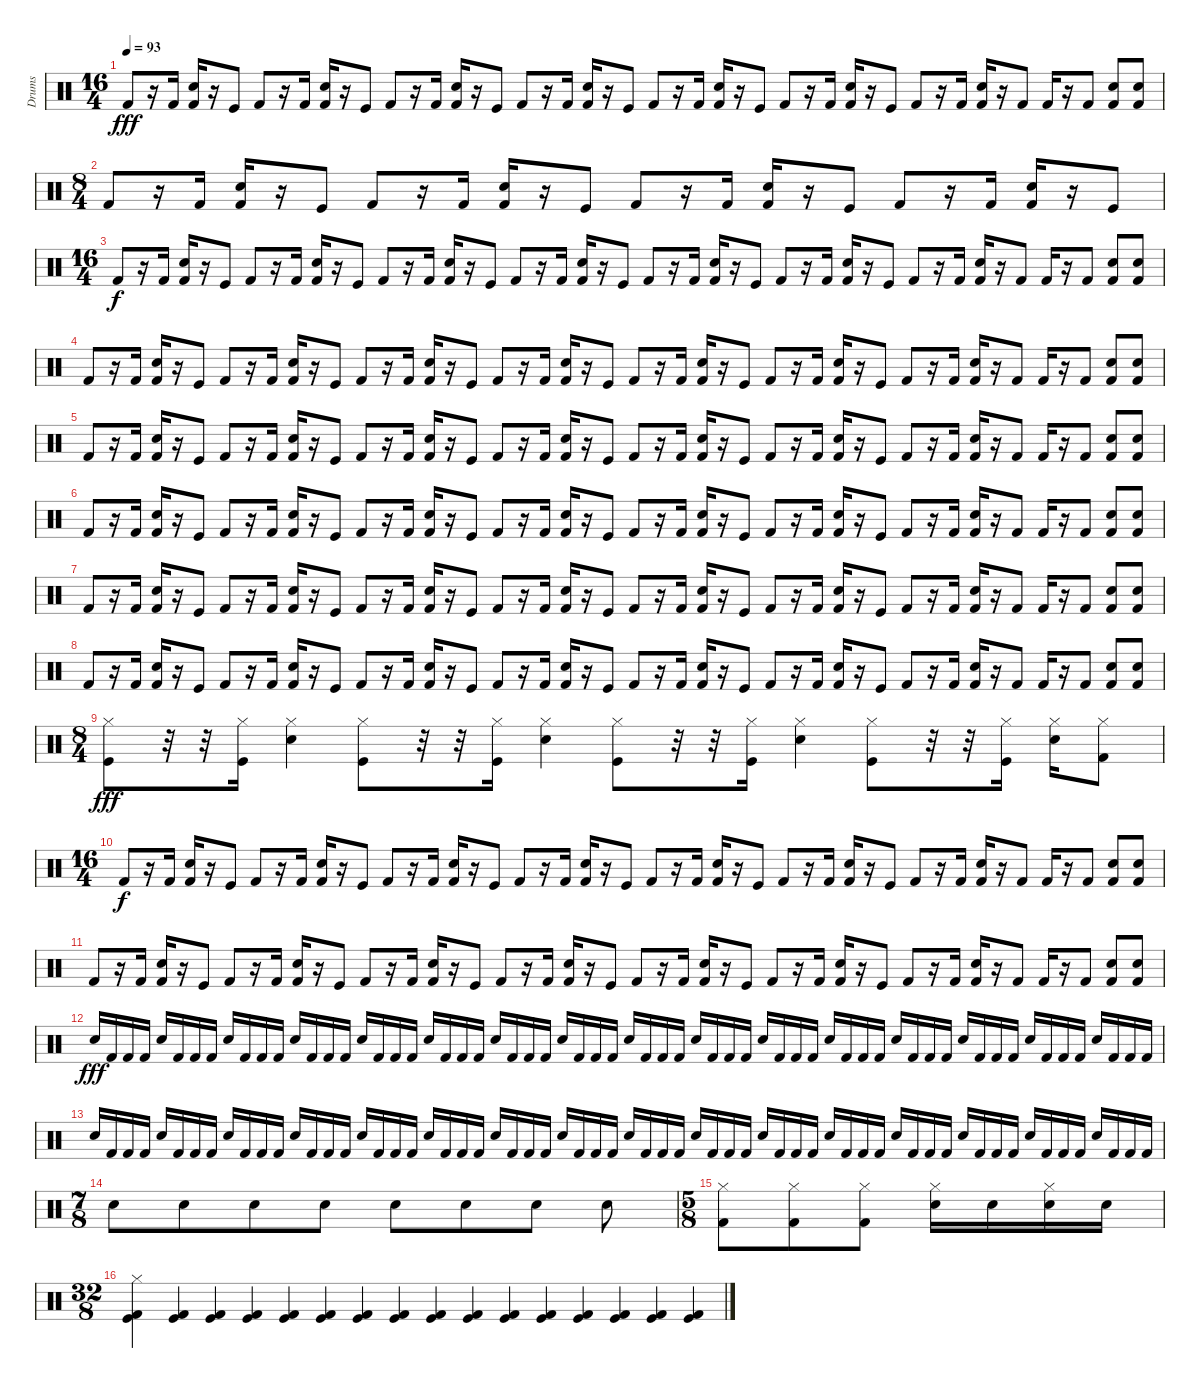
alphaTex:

\track ("Drums" "Drums") {solo instrument percussion}
\staff {score}
\articulation defaults
\ts (16 4)
\tempo 93
\clef neutral
\ks c "Kick (hit) 2".8{dy fff}
r.16 "Kick (hit) 2".16 ("Kick (hit) 2" "Snare (hit) 2").16 r.16 "Kick (hit)".8 "Kick (hit) 2".8 r.16 "Kick (hit) 2".16 ("Kick (hit) 2" "Snare (hit) 2").16 r.16 "Kick (hit)".8 "Kick (hit) 2".8 r.16 "Kick (hit) 2".16 ("Kick (hit) 2" "Snare (hit) 2").16 r.16 "Kick (hit)".8 "Kick (hit) 2".8 r.16 "Kick (hit) 2".16 ("Kick (hit) 2" "Snare (hit) 2").16 r.16 "Kick (hit)".8 "Kick (hit) 2".8 r.16 "Kick (hit) 2".16 ("Kick (hit) 2" "Snare (hit) 2").16 r.16 "Kick (hit)".8 "Kick (hit) 2".8 r.16 "Kick (hit) 2".16 ("Kick (hit) 2" "Snare (hit) 2").16 r.16 "Kick (hit)".8 "Kick (hit) 2".8 r.16 "Kick (hit) 2".16 ("Kick (hit) 2" "Snare (hit) 2").16 r.16 "Kick (hit) 2".8 "Kick (hit) 2".16 r.16 "Kick (hit) 2".8 ("Kick (hit) 2" "Snare (hit) 2").8 ("Kick (hit) 2" "Snare (hit) 2").8 |
\ts (8 4)
"Kick (hit) 2".8 r.16 "Kick (hit) 2".16 ("Kick (hit) 2" "Snare (hit) 2").16 r.16 "Kick (hit)".8 "Kick (hit) 2".8 r.16 "Kick (hit) 2".16 ("Kick (hit) 2" "Snare (hit) 2").16 r.16 "Kick (hit)".8 "Kick (hit) 2".8 r.16 "Kick (hit) 2".16 ("Kick (hit) 2" "Snare (hit) 2").16 r.16 "Kick (hit)".8 "Kick (hit) 2".8 r.16 "Kick (hit) 2".16 ("Kick (hit) 2" "Snare (hit) 2").16 r.16 "Kick (hit)".8 |
\ts (16 4)
"Kick (hit) 2".8{dy f} r.16 "Kick (hit) 2".16 ("Kick (hit) 2" "Snare (hit) 2").16 r.16 "Kick (hit)".8 "Kick (hit) 2".8 r.16 "Kick (hit) 2".16 ("Kick (hit) 2" "Snare (hit) 2").16 r.16 "Kick (hit)".8 "Kick (hit) 2".8 r.16 "Kick (hit) 2".16 ("Kick (hit) 2" "Snare (hit) 2").16 r.16 "Kick (hit)".8 "Kick (hit) 2".8 r.16 "Kick (hit) 2".16 ("Kick (hit) 2" "Snare (hit) 2").16 r.16 "Kick (hit)".8 "Kick (hit) 2".8 r.16 "Kick (hit) 2".16 ("Kick (hit) 2" "Snare (hit) 2").16 r.16 "Kick (hit)".8 "Kick (hit) 2".8 r.16 "Kick (hit) 2".16 ("Kick (hit) 2" "Snare (hit) 2").16 r.16 "Kick (hit)".8 "Kick (hit) 2".8 r.16 "Kick (hit) 2".16 ("Kick (hit) 2" "Snare (hit) 2").16 r.16 "Kick (hit) 2".8 "Kick (hit) 2".16 r.16 "Kick (hit) 2".8 ("Kick (hit) 2" "Snare (hit) 2").8 ("Kick (hit) 2" "Snare (hit) 2").8 |
"Kick (hit) 2".8 r.16 "Kick (hit) 2".16 ("Kick (hit) 2" "Snare (hit) 2").16 r.16 "Kick (hit)".8 "Kick (hit) 2".8 r.16 "Kick (hit) 2".16 ("Kick (hit) 2" "Snare (hit) 2").16 r.16 "Kick (hit)".8 "Kick (hit) 2".8 r.16 "Kick (hit) 2".16 ("Kick (hit) 2" "Snare (hit) 2").16 r.16 "Kick (hit)".8 "Kick (hit) 2".8 r.16 "Kick (hit) 2".16 ("Kick (hit) 2" "Snare (hit) 2").16 r.16 "Kick (hit)".8 "Kick (hit) 2".8 r.16 "Kick (hit) 2".16 ("Kick (hit) 2" "Snare (hit) 2").16 r.16 "Kick (hit)".8 "Kick (hit) 2".8 r.16 "Kick (hit) 2".16 ("Kick (hit) 2" "Snare (hit) 2").16 r.16 "Kick (hit)".8 "Kick (hit) 2".8 r.16 "Kick (hit) 2".16 ("Kick (hit) 2" "Snare (hit) 2").16 r.16 "Kick (hit) 2".8 "Kick (hit) 2".16 r.16 "Kick (hit) 2".8 ("Kick (hit) 2" "Snare (hit) 2").8 ("Kick (hit) 2" "Snare (hit) 2").8 |
"Kick (hit) 2".8 r.16 "Kick (hit) 2".16 ("Kick (hit) 2" "Snare (hit) 2").16 r.16 "Kick (hit)".8 "Kick (hit) 2".8 r.16 "Kick (hit) 2".16 ("Kick (hit) 2" "Snare (hit) 2").16 r.16 "Kick (hit)".8 "Kick (hit) 2".8 r.16 "Kick (hit) 2".16 ("Kick (hit) 2" "Snare (hit) 2").16 r.16 "Kick (hit)".8 "Kick (hit) 2".8 r.16 "Kick (hit) 2".16 ("Kick (hit) 2" "Snare (hit) 2").16 r.16 "Kick (hit)".8 "Kick (hit) 2".8 r.16 "Kick (hit) 2".16 ("Kick (hit) 2" "Snare (hit) 2").16 r.16 "Kick (hit)".8 "Kick (hit) 2".8 r.16 "Kick (hit) 2".16 ("Kick (hit) 2" "Snare (hit) 2").16 r.16 "Kick (hit)".8 "Kick (hit) 2".8 r.16 "Kick (hit) 2".16 ("Kick (hit) 2" "Snare (hit) 2").16 r.16 "Kick (hit) 2".8 "Kick (hit) 2".16 r.16 "Kick (hit) 2".8 ("Kick (hit) 2" "Snare (hit) 2").8 ("Kick (hit) 2" "Snare (hit) 2").8 |
"Kick (hit) 2".8 r.16 "Kick (hit) 2".16 ("Kick (hit) 2" "Snare (hit) 2").16 r.16 "Kick (hit)".8 "Kick (hit) 2".8 r.16 "Kick (hit) 2".16 ("Kick (hit) 2" "Snare (hit) 2").16 r.16 "Kick (hit)".8 "Kick (hit) 2".8 r.16 "Kick (hit) 2".16 ("Kick (hit) 2" "Snare (hit) 2").16 r.16 "Kick (hit)".8 "Kick (hit) 2".8 r.16 "Kick (hit) 2".16 ("Kick (hit) 2" "Snare (hit) 2").16 r.16 "Kick (hit)".8 "Kick (hit) 2".8 r.16 "Kick (hit) 2".16 ("Kick (hit) 2" "Snare (hit) 2").16 r.16 "Kick (hit)".8 "Kick (hit) 2".8 r.16 "Kick (hit) 2".16 ("Kick (hit) 2" "Snare (hit) 2").16 r.16 "Kick (hit)".8 "Kick (hit) 2".8 r.16 "Kick (hit) 2".16 ("Kick (hit) 2" "Snare (hit) 2").16 r.16 "Kick (hit) 2".8 "Kick (hit) 2".16 r.16 "Kick (hit) 2".8 ("Kick (hit) 2" "Snare (hit) 2").8 ("Kick (hit) 2" "Snare (hit) 2").8 |
"Kick (hit) 2".8 r.16 "Kick (hit) 2".16 ("Kick (hit) 2" "Snare (hit) 2").16 r.16 "Kick (hit)".8 "Kick (hit) 2".8 r.16 "Kick (hit) 2".16 ("Kick (hit) 2" "Snare (hit) 2").16 r.16 "Kick (hit)".8 "Kick (hit) 2".8 r.16 "Kick (hit) 2".16 ("Kick (hit) 2" "Snare (hit) 2").16 r.16 "Kick (hit)".8 "Kick (hit) 2".8 r.16 "Kick (hit) 2".16 ("Kick (hit) 2" "Snare (hit) 2").16 r.16 "Kick (hit)".8 "Kick (hit) 2".8 r.16 "Kick (hit) 2".16 ("Kick (hit) 2" "Snare (hit) 2").16 r.16 "Kick (hit)".8 "Kick (hit) 2".8 r.16 "Kick (hit) 2".16 ("Kick (hit) 2" "Snare (hit) 2").16 r.16 "Kick (hit)".8 "Kick (hit) 2".8 r.16 "Kick (hit) 2".16 ("Kick (hit) 2" "Snare (hit) 2").16 r.16 "Kick (hit) 2".8 "Kick (hit) 2".16 r.16 "Kick (hit) 2".8 ("Kick (hit) 2" "Snare (hit) 2").8 ("Kick (hit) 2" "Snare (hit) 2").8 |
"Kick (hit) 2".8 r.16 "Kick (hit) 2".16 ("Kick (hit) 2" "Snare (hit) 2").16 r.16 "Kick (hit)".8 "Kick (hit) 2".8 r.16 "Kick (hit) 2".16 ("Kick (hit) 2" "Snare (hit) 2").16 r.16 "Kick (hit)".8 "Kick (hit) 2".8 r.16 "Kick (hit) 2".16 ("Kick (hit) 2" "Snare (hit) 2").16 r.16 "Kick (hit)".8 "Kick (hit) 2".8 r.16 "Kick (hit) 2".16 ("Kick (hit) 2" "Snare (hit) 2").16 r.16 "Kick (hit)".8 "Kick (hit) 2".8 r.16 "Kick (hit) 2".16 ("Kick (hit) 2" "Snare (hit) 2").16 r.16 "Kick (hit)".8 "Kick (hit) 2".8 r.16 "Kick (hit) 2".16 ("Kick (hit) 2" "Snare (hit) 2").16 r.16 "Kick (hit)".8 "Kick (hit) 2".8 r.16 "Kick (hit) 2".16 ("Kick (hit) 2" "Snare (hit) 2").16 r.16 "Kick (hit) 2".8 "Kick (hit) 2".16 r.16 "Kick (hit) 2".8 ("Kick (hit) 2" "Snare (hit) 2").8 ("Kick (hit) 2" "Snare (hit) 2").8 |
\ts (8 4)
("Hi-Hat (closed)" "Kick (hit)").8{dy fff} r.32 r.32 ("Hi-Hat (closed)" "Kick (hit)").16 ("Hi-Hat (closed)" "Snare (hit) 2").4 ("Hi-Hat (closed)" "Kick (hit)").8 r.32 r.32 ("Hi-Hat (closed)" "Kick (hit)").16 ("Hi-Hat (closed)" "Snare (hit) 2").4 ("Hi-Hat (closed)" "Kick (hit)").8 r.32 r.32 ("Hi-Hat (closed)" "Kick (hit)").16 ("Hi-Hat (closed)" "Snare (hit) 2").4 ("Hi-Hat (closed)" "Kick (hit)").8 r.32 r.32 ("Hi-Hat (closed)" "Kick (hit)").16 ("Hi-Hat (closed)" "Snare (hit) 2").16 ("Kick (hit) 2" "Hi-Hat (closed)").8 |
\ts (16 4)
"Kick (hit) 2".8{dy f} r.16 "Kick (hit) 2".16 ("Kick (hit) 2" "Snare (hit) 2").16 r.16 "Kick (hit)".8 "Kick (hit) 2".8 r.16 "Kick (hit) 2".16 ("Kick (hit) 2" "Snare (hit) 2").16 r.16 "Kick (hit)".8 "Kick (hit) 2".8 r.16 "Kick (hit) 2".16 ("Kick (hit) 2" "Snare (hit) 2").16 r.16 "Kick (hit)".8 "Kick (hit) 2".8 r.16 "Kick (hit) 2".16 ("Kick (hit) 2" "Snare (hit) 2").16 r.16 "Kick (hit)".8 "Kick (hit) 2".8 r.16 "Kick (hit) 2".16 ("Kick (hit) 2" "Snare (hit) 2").16 r.16 "Kick (hit)".8 "Kick (hit) 2".8 r.16 "Kick (hit) 2".16 ("Kick (hit) 2" "Snare (hit) 2").16 r.16 "Kick (hit)".8 "Kick (hit) 2".8 r.16 "Kick (hit) 2".16 ("Kick (hit) 2" "Snare (hit) 2").16 r.16 "Kick (hit) 2".8 "Kick (hit) 2".16 r.16 "Kick (hit) 2".8 ("Kick (hit) 2" "Snare (hit) 2").8 ("Kick (hit) 2" "Snare (hit) 2").8 |
"Kick (hit) 2".8 r.16 "Kick (hit) 2".16 ("Kick (hit) 2" "Snare (hit) 2").16 r.16 "Kick (hit)".8 "Kick (hit) 2".8 r.16 "Kick (hit) 2".16 ("Kick (hit) 2" "Snare (hit) 2").16 r.16 "Kick (hit)".8 "Kick (hit) 2".8 r.16 "Kick (hit) 2".16 ("Kick (hit) 2" "Snare (hit) 2").16 r.16 "Kick (hit)".8 "Kick (hit) 2".8 r.16 "Kick (hit) 2".16 ("Kick (hit) 2" "Snare (hit) 2").16 r.16 "Kick (hit)".8 "Kick (hit) 2".8 r.16 "Kick (hit) 2".16 ("Kick (hit) 2" "Snare (hit) 2").16 r.16 "Kick (hit)".8 "Kick (hit) 2".8 r.16 "Kick (hit) 2".16 ("Kick (hit) 2" "Snare (hit) 2").16 r.16 "Kick (hit)".8 "Kick (hit) 2".8 r.16 "Kick (hit) 2".16 ("Kick (hit) 2" "Snare (hit) 2").16 r.16 "Kick (hit) 2".8 "Kick (hit) 2".16 r.16 "Kick (hit) 2".8 ("Kick (hit) 2" "Snare (hit) 2").8 ("Kick (hit) 2" "Snare (hit) 2").8 |
"Snare (hit) 2".16{dy fff} "Kick (hit) 2".16 "Kick (hit) 2".16 "Kick (hit) 2".16 "Snare (hit) 2".16 "Kick (hit) 2".16 "Kick (hit) 2".16 "Kick (hit) 2".16 "Snare (hit) 2".16 "Kick (hit) 2".16 "Kick (hit) 2".16 "Kick (hit) 2".16 "Snare (hit) 2".16 "Kick (hit) 2".16 "Kick (hit) 2".16 "Kick (hit) 2".16 "Snare (hit) 2".16 "Kick (hit) 2".16 "Kick (hit) 2".16 "Kick (hit) 2".16 "Snare (hit) 2".16 "Kick (hit) 2".16 "Kick (hit) 2".16 "Kick (hit) 2".16 "Snare (hit) 2".16 "Kick (hit) 2".16 "Kick (hit) 2".16 "Kick (hit) 2".16 "Snare (hit) 2".16 "Kick (hit) 2".16 "Kick (hit) 2".16 "Kick (hit) 2".16 "Snare (hit) 2".16 "Kick (hit) 2".16 "Kick (hit) 2".16 "Kick (hit) 2".16 "Snare (hit) 2".16 "Kick (hit) 2".16 "Kick (hit) 2".16 "Kick (hit) 2".16 "Snare (hit) 2".16 "Kick (hit) 2".16 "Kick (hit) 2".16 "Kick (hit) 2".16 "Snare (hit) 2".16 "Kick (hit) 2".16 "Kick (hit) 2".16 "Kick (hit) 2".16 "Snare (hit) 2".16 "Kick (hit) 2".16 "Kick (hit) 2".16 "Kick (hit) 2".16 "Snare (hit) 2".16 "Kick (hit) 2".16 "Kick (hit) 2".16 "Kick (hit) 2".16 "Snare (hit) 2".16 "Kick (hit) 2".16 "Kick (hit) 2".16 "Kick (hit) 2".16 "Snare (hit) 2".16 "Kick (hit) 2".16 "Kick (hit) 2".16 "Kick (hit) 2".16 |
"Snare (hit) 2".16 "Kick (hit) 2".16 "Kick (hit) 2".16 "Kick (hit) 2".16 "Snare (hit) 2".16 "Kick (hit) 2".16 "Kick (hit) 2".16 "Kick (hit) 2".16 "Snare (hit) 2".16 "Kick (hit) 2".16 "Kick (hit) 2".16 "Kick (hit) 2".16 "Snare (hit) 2".16 "Kick (hit) 2".16 "Kick (hit) 2".16 "Kick (hit) 2".16 "Snare (hit) 2".16 "Kick (hit) 2".16 "Kick (hit) 2".16 "Kick (hit) 2".16 "Snare (hit) 2".16 "Kick (hit) 2".16 "Kick (hit) 2".16 "Kick (hit) 2".16 "Snare (hit) 2".16 "Kick (hit) 2".16 "Kick (hit) 2".16 "Kick (hit) 2".16 "Snare (hit) 2".16 "Kick (hit) 2".16 "Kick (hit) 2".16 "Kick (hit) 2".16 "Snare (hit) 2".16 "Kick (hit) 2".16 "Kick (hit) 2".16 "Kick (hit) 2".16 "Snare (hit) 2".16 "Kick (hit) 2".16 "Kick (hit) 2".16 "Kick (hit) 2".16 "Snare (hit) 2".16 "Kick (hit) 2".16 "Kick (hit) 2".16 "Kick (hit) 2".16 "Snare (hit) 2".16 "Kick (hit) 2".16 "Kick (hit) 2".16 "Kick (hit) 2".16 "Snare (hit) 2".16 "Kick (hit) 2".16 "Kick (hit) 2".16 "Kick (hit) 2".16 "Snare (hit) 2".16 "Kick (hit) 2".16 "Kick (hit) 2".16 "Kick (hit) 2".16 "Snare (hit) 2".16 "Kick (hit) 2".16 "Kick (hit) 2".16 "Kick (hit) 2".16 "Snare (hit) 2".16 "Kick (hit) 2".16 "Kick (hit) 2".16 "Kick (hit) 2".16 |
\ts (7 8)
"Snare (hit) 2".8 "Snare (hit) 2".8 "Snare (hit) 2".8 "Snare (hit) 2".8 "Snare (hit) 2".8 "Snare (hit) 2".8 "Snare (hit) 2".8 "Snare (hit) 2".8 |
\ts (5 8)
("Hi-Hat (closed)" "Kick (hit) 2").8 ("Hi-Hat (closed)" "Kick (hit) 2").8 ("Hi-Hat (closed)" "Kick (hit) 2").8 ("Hi-Hat (closed)" "Snare (hit) 2").16 "Snare (hit) 2".16 ("Hi-Hat (closed)" "Snare (hit) 2").16 "Snare (hit) 2".16 |
\ts (32 8)
("Hi-Hat (closed)" "Kick (hit)" "Kick (hit) 2").4 ("Kick (hit)" "Kick (hit) 2").4 ("Kick (hit)" "Kick (hit) 2").4 ("Kick (hit)" "Kick (hit) 2").4 ("Kick (hit)" "Kick (hit) 2").4 ("Kick (hit)" "Kick (hit) 2").4 ("Kick (hit)" "Kick (hit) 2").4 ("Kick (hit)" "Kick (hit) 2").4 ("Kick (hit)" "Kick (hit) 2").4 ("Kick (hit)" "Kick (hit) 2").4 ("Kick (hit)" "Kick (hit) 2").4 ("Kick (hit)" "Kick (hit) 2").4 ("Kick (hit)" "Kick (hit) 2").4 ("Kick (hit)" "Kick (hit) 2").4 ("Kick (hit)" "Kick (hit) 2").4 ("Kick (hit)" "Kick (hit) 2").4
